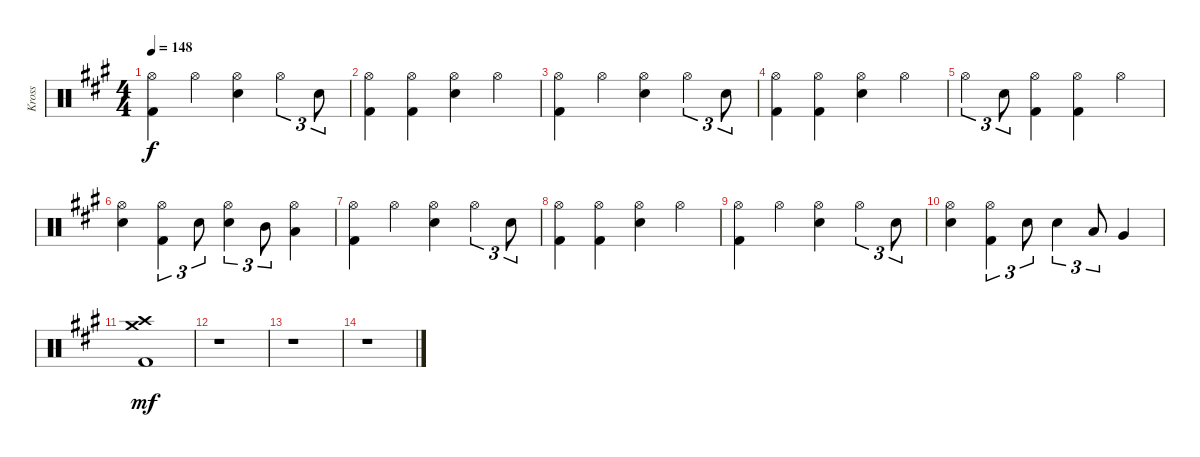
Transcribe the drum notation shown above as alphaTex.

\track ("Kross" "Kross") {instrument percussion}
\staff {score}
\articulation defaults
\ts (4 4)
\tempo 148
\clef neutral
\ks a
("Hi-Hat (open)" "Kick (hit) 2").4{dy f} "Hi-Hat (open)".4 ("Hi-Hat (open)" "Electric Snare (hit)").4 "Hi-Hat (open)".4{tu (3 2)} "Electric Snare (hit)".8{tu (3 2)} |
("Hi-Hat (open)" "Kick (hit) 2").4 ("Hi-Hat (open)" "Kick (hit) 2").4 ("Hi-Hat (open)" "Electric Snare (hit)").4 "Hi-Hat (open)".4 |
("Hi-Hat (open)" "Kick (hit) 2").4 "Hi-Hat (open)".4 ("Hi-Hat (open)" "Electric Snare (hit)").4 "Hi-Hat (open)".4{tu (3 2)} "Electric Snare (hit)".8{tu (3 2)} |
("Hi-Hat (open)" "Kick (hit) 2").4 ("Hi-Hat (open)" "Kick (hit) 2").4 ("Hi-Hat (open)" "Electric Snare (hit)").4 "Hi-Hat (open)".4 |
"Hi-Hat (open)".4{tu (3 2)} "Electric Snare (hit)".8{tu (3 2)} ("Hi-Hat (open)" "Kick (hit) 2").4 ("Hi-Hat (open)" "Kick (hit) 2").4 "Hi-Hat (open)".4 |
("Hi-Hat (open)" "Electric Snare (hit)").4 ("Hi-Hat (open)" "Kick (hit) 2").4{tu (3 2)} "Electric Snare (hit)".8{tu (3 2)} ("Hi-Hat (open)" "Electric Snare (hit)").4{tu (3 2)} "Mid Tom (hit)".8{tu (3 2)} ("Hi-Hat (open)" "Low Tom (hit)").4 |
("Hi-Hat (open)" "Kick (hit) 2").4 "Hi-Hat (open)".4 ("Hi-Hat (open)" "Electric Snare (hit)").4 "Hi-Hat (open)".4{tu (3 2)} "Electric Snare (hit)".8{tu (3 2)} |
("Hi-Hat (open)" "Kick (hit) 2").4 ("Hi-Hat (open)" "Kick (hit) 2").4 ("Hi-Hat (open)" "Electric Snare (hit)").4 "Hi-Hat (open)".4 |
("Hi-Hat (open)" "Kick (hit) 2").4 "Hi-Hat (open)".4 ("Hi-Hat (open)" "Electric Snare (hit)").4 "Hi-Hat (open)".4{tu (3 2)} "Electric Snare (hit)".8{tu (3 2)} |
("Hi-Hat (open)" "Electric Snare (hit)").4 ("Hi-Hat (open)" "Kick (hit) 2").4{tu (3 2)} "Electric Snare (hit)".8{tu (3 2)} "Electric Snare (hit)".4{tu (3 2)} "Low Tom (hit)".8{tu (3 2)} "Very Low Tom (hit)".4 |
("Crash medium (hit)" "Crash high (hit)" "Kick (hit) 2").1{dy mf} |
r.1 |
r.1 |
r.1
